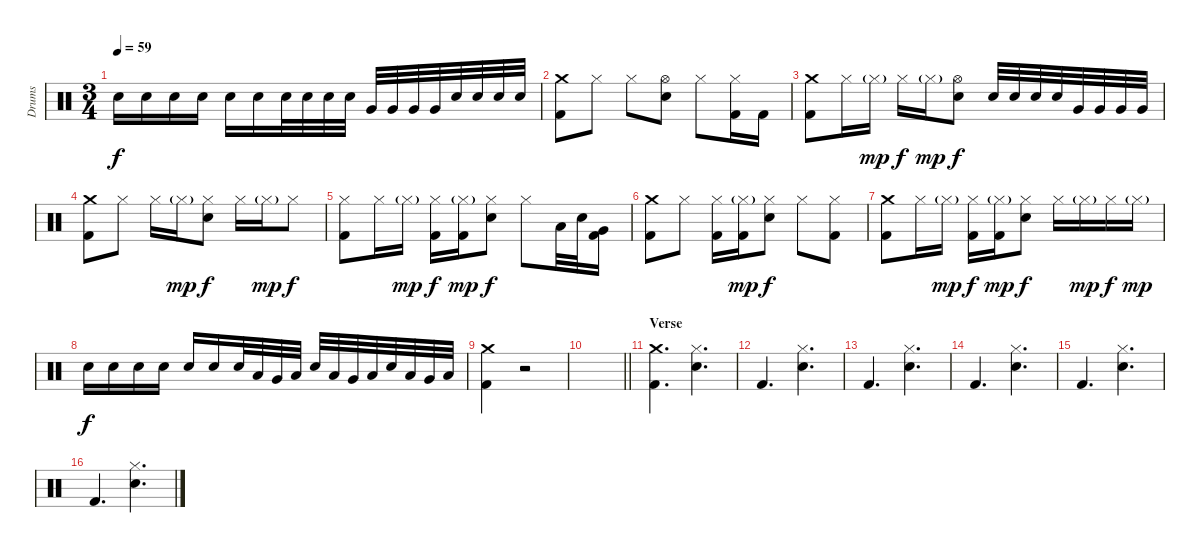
\track ("Drums" "Drums") {instrument percussion}
\staff {score}
\articulation defaults
\ts (3 4)
\tempo 59
\clef neutral
\ks c "Snare (hit) 2".16{dy f} "Snare (hit) 2".16 "Snare (hit) 2".16 "Snare (hit) 2".16 "Snare (hit) 2".16 "Snare (hit) 2".16 "Snare (hit) 2".32 "Snare (hit) 2".32 "Snare (hit) 2".32 "Snare (hit) 2".32 "Very Low Tom (hit)".32 "Very Low Tom (hit)".32 "Very Low Tom (hit)".32 "Very Low Tom (hit)".32 "Snare (hit) 2".32 "Snare (hit) 2".32 "Snare (hit) 2".32 "Snare (hit) 2".32
|
("Crash medium (hit)" "Kick (hit) 2").8 "Hi-Hat (closed)".8 "Hi-Hat (closed)".8 ("Hi-Hat (open)" "Snare (hit) 2").8 "Hi-Hat (closed)".8 ("Hi-Hat (closed)" "Kick (hit) 2").16 "Kick (hit) 2".16 |
("Crash medium (hit)" "Kick (hit) 2").8 "Hi-Hat (closed)".16 "Hi-Hat (closed)"{g}.16{dy mp} "Hi-Hat (closed)".16{dy f} "Hi-Hat (closed)"{g}.16{dy mp} ("Hi-Hat (open)" "Snare (hit) 2").8{dy f} "Snare (hit) 2".32 "Snare (hit) 2".32 "Snare (hit) 2".32 "Snare (hit) 2".32 "Very Low Tom (hit)".32 "Very Low Tom (hit)".32 "Very Low Tom (hit)".32 "Very Low Tom (hit)".32 |
("Crash medium (hit)" "Kick (hit) 2").8 "Hi-Hat (closed)".8 "Hi-Hat (closed)".16 "Hi-Hat (closed)"{g}.16{dy mp} ("Hi-Hat (closed)" "Snare (hit) 2").8{dy f} "Hi-Hat (closed)".16 "Hi-Hat (closed)"{g}.16{dy mp} "Hi-Hat (closed)".8{dy f} |
("Hi-Hat (closed)" "Kick (hit) 2").8 "Hi-Hat (closed)".16 "Hi-Hat (closed)"{g}.16{dy mp} ("Hi-Hat (closed)" "Kick (hit) 2").16{dy f} ("Hi-Hat (closed)"{g} "Kick (hit) 2").16{dy mp} ("Hi-Hat (closed)" "Snare (hit) 2").8{dy f} "Hi-Hat (closed)".8 "Low Tom (hit)".32 "Snare (hit) 2".32 ("Very Low Tom (hit)" "Kick (hit) 2").16 |
("Crash medium (hit)" "Kick (hit) 2").8 "Hi-Hat (closed)".8 ("Hi-Hat (closed)" "Kick (hit) 2").16 ("Hi-Hat (closed)"{g} "Kick (hit) 2").16{dy mp} ("Hi-Hat (closed)" "Snare (hit) 2").8{dy f} "Hi-Hat (closed)".8 ("Hi-Hat (closed)" "Kick (hit) 2").8 |
("Crash medium (hit)" "Kick (hit) 2").8 "Hi-Hat (closed)".16 "Hi-Hat (closed)"{g}.16{dy mp} ("Hi-Hat (closed)" "Kick (hit) 2").16{dy f} ("Hi-Hat (closed)"{g} "Kick (hit) 2").16{dy mp} ("Hi-Hat (closed)" "Snare (hit) 2").8{dy f} "Hi-Hat (closed)".16 "Hi-Hat (closed)"{g}.16{dy mp} "Hi-Hat (closed)".16{dy f} "Hi-Hat (closed)"{g}.16{dy mp} |
"Snare (hit) 2".16{dy f} "Snare (hit) 2".16 "Snare (hit) 2".16 "Snare (hit) 2".16 "Snare (hit) 2".16 "Snare (hit) 2".16 "Snare (hit) 2".32 "Low Tom (hit)".32 "Very Low Tom (hit)".32 "Low Floor Tom (hit)".32 "Snare (hit) 2".32 "Low Tom (hit)".32 "Very Low Tom (hit)".32 "Low Floor Tom (hit)".32 "Snare (hit) 2".32 "Low Tom (hit)".32 "Very Low Tom (hit)".32 "Low Floor Tom (hit)".32 |
("Crash medium (hit)" "Kick (hit) 2").4 r.2 |
\barLineRight lightlight
|
\section ("" "Verse")
("Crash medium (hit)" "Kick (hit) 2").4{d} ("Hi-Hat (closed)" "Snare (hit) 2").4{d} |
"Kick (hit) 2".4{d} ("Hi-Hat (closed)" "Snare (hit) 2").4{d} |
"Kick (hit) 2".4{d} ("Hi-Hat (closed)" "Snare (hit) 2").4{d} |
"Kick (hit) 2".4{d} ("Hi-Hat (closed)" "Snare (hit) 2").4{d} |
"Kick (hit) 2".4{d} ("Hi-Hat (closed)" "Snare (hit) 2").4{d} |
"Kick (hit) 2".4{d} ("Hi-Hat (closed)" "Snare (hit) 2").4{d}
